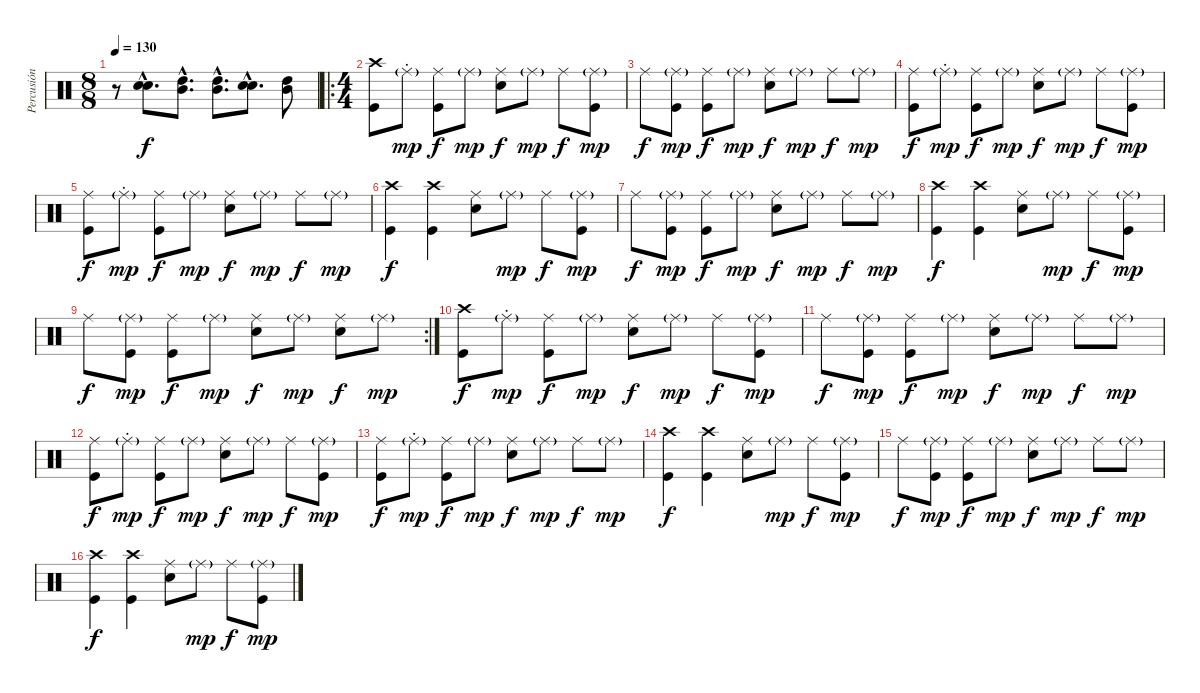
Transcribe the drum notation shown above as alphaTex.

\track ("Percusión" "Percusión") {instrument percussion}
\staff {score}
\articulation defaults
\ts (8 8)
\tempo 130
\clef neutral
\ks c
r.8{dy mp} ("Electric Snare (hit)"{hac} "Electric Snare (hit)"{hac}).8{d dy f} ("Mid Tom (hit)"{hac} "High Tom (hit)"{hac}).8{d} ("Mid Tom (hit)"{hac} "High Tom (hit)"{hac}).8{d} ("Electric Snare (hit)"{hac} "Electric Snare (hit)"{hac}).8{d} ("Mid Tom (hit)" "High Tom (hit)").8 |
\ro
\ts (4 4)
("Crash high (hit)" "Kick (hit)").8 "Ride (middle)"{g st}.8{dy mp} ("Ride (middle)" "Kick (hit)").8{dy f} "Ride (middle)"{g}.8{dy mp} ("Ride (middle)" "Electric Snare (hit)").8{dy f} "Ride (middle)"{g}.8{dy mp} "Ride (middle)".8{dy f} ("Ride (middle)"{g} "Kick (hit)").8{dy mp} |
"Ride (middle)".8{dy f} ("Ride (middle)"{g} "Kick (hit)").8{dy mp} ("Ride (middle)" "Kick (hit)").8{dy f} "Ride (middle)"{g}.8{dy mp} ("Ride (middle)" "Electric Snare (hit)").8{dy f} "Ride (middle)"{g}.8{dy mp} "Ride (middle)".8{dy f} "Ride (middle)"{g}.8{dy mp} |
("Ride (middle)" "Kick (hit)").8{dy f} "Ride (middle)"{g st}.8{dy mp} ("Ride (middle)" "Kick (hit)").8{dy f} "Ride (middle)"{g}.8{dy mp} ("Ride (middle)" "Electric Snare (hit)").8{dy f} "Ride (middle)"{g}.8{dy mp} "Ride (middle)".8{dy f} ("Ride (middle)"{g} "Kick (hit)").8{dy mp} |
("Ride (middle)" "Kick (hit)").8{dy f} "Ride (middle)"{g st}.8{dy mp} ("Ride (middle)" "Kick (hit)").8{dy f} "Ride (middle)"{g}.8{dy mp} ("Ride (middle)" "Electric Snare (hit)").8{dy f} "Ride (middle)"{g}.8{dy mp} "Ride (middle)".8{dy f} "Ride (middle)"{g}.8{dy mp} |
("Crash high (hit)" "Kick (hit)").4{dy f} ("Crash high (hit)" "Kick (hit)").4 ("Ride (middle)" "Electric Snare (hit)").8 "Ride (middle)"{g}.8{dy mp} "Ride (middle)".8{dy f} ("Ride (middle)"{g} "Kick (hit)").8{dy mp} |
"Ride (middle)".8{dy f} ("Ride (middle)"{g} "Kick (hit)").8{dy mp} ("Ride (middle)" "Kick (hit)").8{dy f} "Ride (middle)"{g}.8{dy mp} ("Ride (middle)" "Electric Snare (hit)").8{dy f} "Ride (middle)"{g}.8{dy mp} "Ride (middle)".8{dy f} "Ride (middle)"{g}.8{dy mp} |
("Crash high (hit)" "Kick (hit)").4{dy f} ("Crash high (hit)" "Kick (hit)").4 ("Ride (middle)" "Electric Snare (hit)").8 "Ride (middle)"{g}.8{dy mp} "Ride (middle)".8{dy f} ("Ride (middle)"{g} "Kick (hit)").8{dy mp} |
\rc 2 "Ride (middle)".8{dy f}
("Ride (middle)"{g} "Kick (hit)").8{dy mp} ("Ride (middle)" "Kick (hit)").8{dy f} "Ride (middle)"{g}.8{dy mp} ("Ride (middle)" "Electric Snare (hit)").8{dy f} "Ride (middle)"{g}.8{dy mp} ("Ride (middle)" "Electric Snare (hit)").8{dy f} "Ride (middle)"{g}.8{dy mp} |
("Crash high (hit)" "Kick (hit)").8{dy f} "Ride (middle)"{g st}.8{dy mp} ("Ride (middle)" "Kick (hit)").8{dy f} "Ride (middle)"{g}.8{dy mp} ("Ride (middle)" "Electric Snare (hit)").8{dy f} "Ride (middle)"{g}.8{dy mp} "Ride (middle)".8{dy f} ("Ride (middle)"{g} "Kick (hit)").8{dy mp} |
"Ride (middle)".8{dy f} ("Ride (middle)"{g} "Kick (hit)").8{dy mp} ("Ride (middle)" "Kick (hit)").8{dy f} "Ride (middle)"{g}.8{dy mp} ("Ride (middle)" "Electric Snare (hit)").8{dy f} "Ride (middle)"{g}.8{dy mp} "Ride (middle)".8{dy f} "Ride (middle)"{g}.8{dy mp} |
("Ride (middle)" "Kick (hit)").8{dy f} "Ride (middle)"{g st}.8{dy mp} ("Ride (middle)" "Kick (hit)").8{dy f} "Ride (middle)"{g}.8{dy mp} ("Ride (middle)" "Electric Snare (hit)").8{dy f} "Ride (middle)"{g}.8{dy mp} "Ride (middle)".8{dy f} ("Ride (middle)"{g} "Kick (hit)").8{dy mp} |
("Ride (middle)" "Kick (hit)").8{dy f} "Ride (middle)"{g st}.8{dy mp} ("Ride (middle)" "Kick (hit)").8{dy f} "Ride (middle)"{g}.8{dy mp} ("Ride (middle)" "Electric Snare (hit)").8{dy f} "Ride (middle)"{g}.8{dy mp} "Ride (middle)".8{dy f} "Ride (middle)"{g}.8{dy mp} |
("Crash high (hit)" "Kick (hit)").4{dy f} ("Crash high (hit)" "Kick (hit)").4 ("Ride (middle)" "Electric Snare (hit)").8 "Ride (middle)"{g}.8{dy mp} "Ride (middle)".8{dy f} ("Ride (middle)"{g} "Kick (hit)").8{dy mp} |
"Ride (middle)".8{dy f} ("Ride (middle)"{g} "Kick (hit)").8{dy mp} ("Ride (middle)" "Kick (hit)").8{dy f} "Ride (middle)"{g}.8{dy mp} ("Ride (middle)" "Electric Snare (hit)").8{dy f} "Ride (middle)"{g}.8{dy mp} "Ride (middle)".8{dy f} "Ride (middle)"{g}.8{dy mp} |
("Crash high (hit)" "Kick (hit)").4{dy f} ("Crash high (hit)" "Kick (hit)").4 ("Ride (middle)" "Electric Snare (hit)").8 "Ride (middle)"{g}.8{dy mp} "Ride (middle)".8{dy f} ("Ride (middle)"{g} "Kick (hit)").8{dy mp}
